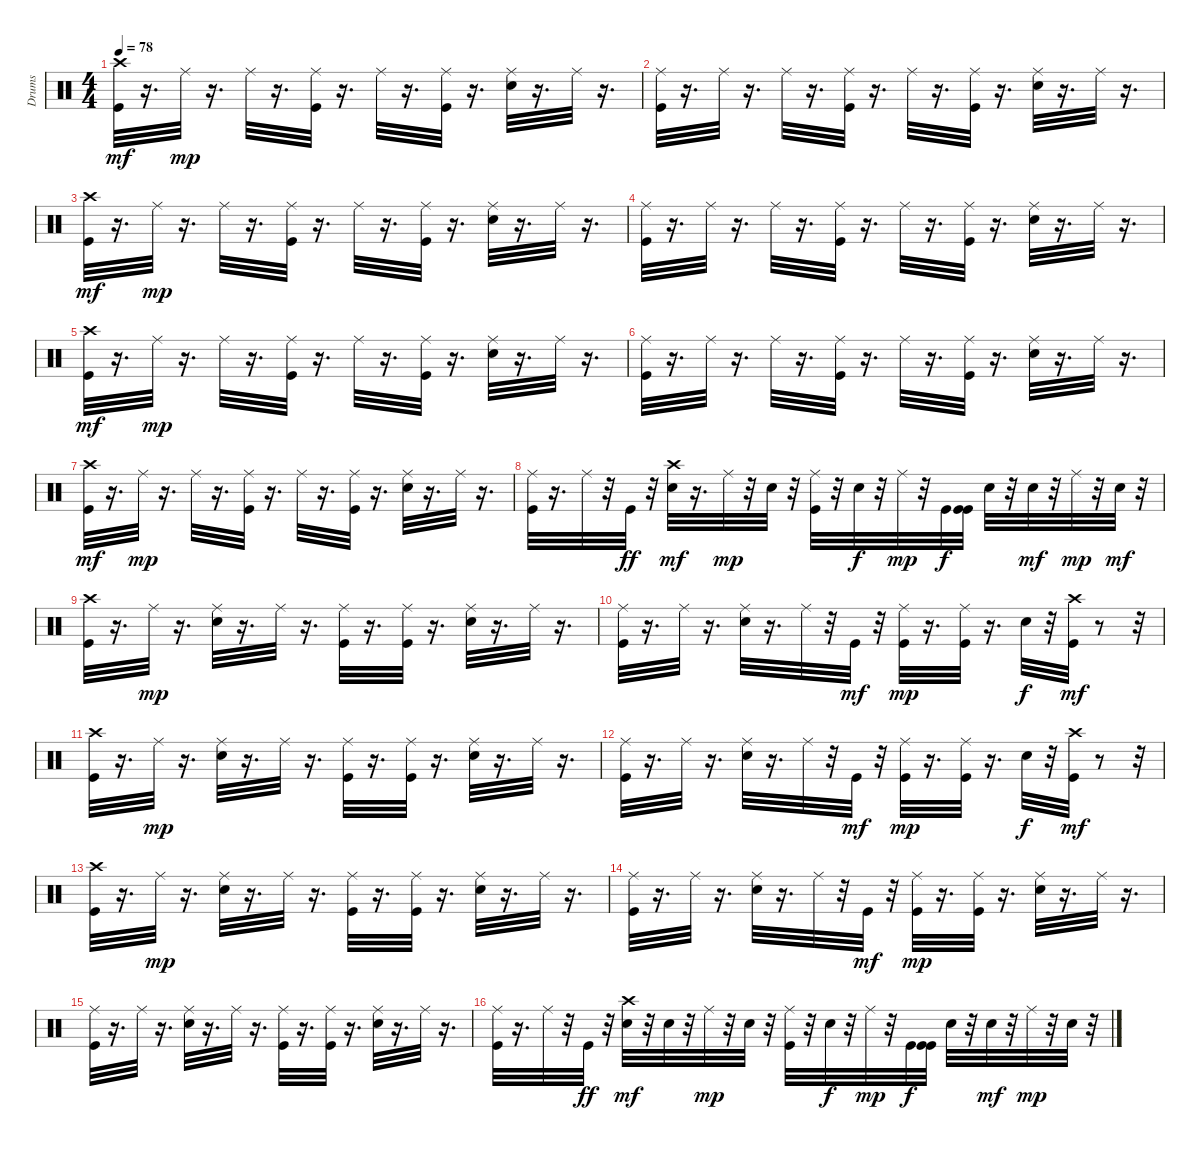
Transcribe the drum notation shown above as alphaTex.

\track ("Drums" "Drums") {instrument percussion}
\staff {score}
\articulation defaults
\ts (4 4)
\tempo 78
\clef neutral
\ks c
("Kick (hit)" "Crash high (hit)").32{dy mf} r.16{d} "Ride (middle)".32{dy mp} r.16{d} "Ride (middle)".32 r.16{d} ("Kick (hit)" "Ride (middle)").32 r.16{d} "Ride (middle)".32 r.16{d} ("Kick (hit)" "Ride (middle)").32 r.16{d} ("Snare (hit) 2" "Ride (middle)").32 r.16{d} "Ride (middle)".32 r.16{d} |
("Kick (hit)" "Ride (middle)").32 r.16{d} "Ride (middle)".32 r.16{d} "Ride (middle)".32 r.16{d} ("Kick (hit)" "Ride (middle)").32 r.16{d} "Ride (middle)".32 r.16{d} ("Kick (hit)" "Ride (middle)").32 r.16{d} ("Snare (hit) 2" "Ride (middle)").32 r.16{d} "Ride (middle)".32 r.16{d} |
("Kick (hit)" "Crash high (hit)").32{dy mf} r.16{d} "Ride (middle)".32{dy mp} r.16{d} "Ride (middle)".32 r.16{d} ("Kick (hit)" "Ride (middle)").32 r.16{d} "Ride (middle)".32 r.16{d} ("Kick (hit)" "Ride (middle)").32 r.16{d} ("Snare (hit) 2" "Ride (middle)").32 r.16{d} "Ride (middle)".32 r.16{d} |
("Kick (hit)" "Ride (middle)").32 r.16{d} "Ride (middle)".32 r.16{d} "Ride (middle)".32 r.16{d} ("Kick (hit)" "Ride (middle)").32 r.16{d} "Ride (middle)".32 r.16{d} ("Kick (hit)" "Ride (middle)").32 r.16{d} ("Snare (hit) 2" "Ride (middle)").32 r.16{d} "Ride (middle)".32 r.16{d} |
("Kick (hit)" "Crash high (hit)").32{dy mf} r.16{d} "Ride (middle)".32{dy mp} r.16{d} "Ride (middle)".32 r.16{d} ("Kick (hit)" "Ride (middle)").32 r.16{d} "Ride (middle)".32 r.16{d} ("Kick (hit)" "Ride (middle)").32 r.16{d} ("Snare (hit) 2" "Ride (middle)").32 r.16{d} "Ride (middle)".32 r.16{d} |
("Kick (hit)" "Ride (middle)").32 r.16{d} "Ride (middle)".32 r.16{d} "Ride (middle)".32 r.16{d} ("Kick (hit)" "Ride (middle)").32 r.16{d} "Ride (middle)".32 r.16{d} ("Kick (hit)" "Ride (middle)").32 r.16{d} ("Snare (hit) 2" "Ride (middle)").32 r.16{d} "Ride (middle)".32 r.16{d} |
("Kick (hit)" "Crash high (hit)").32{dy mf} r.16{d} "Ride (middle)".32{dy mp} r.16{d} "Ride (middle)".32 r.16{d} ("Kick (hit)" "Ride (middle)").32 r.16{d} "Ride (middle)".32 r.16{d} ("Kick (hit)" "Ride (middle)").32 r.16{d} ("Snare (hit) 2" "Ride (middle)").32 r.16{d} "Ride (middle)".32 r.16{d} |
("Kick (hit)" "Ride (middle)").32 r.16{d} "Ride (middle)".32 r.32 "Kick (hit)".32{dy ff} r.32 ("Snare (hit) 2" "Crash high (hit)").32{dy mf} r.16{d} "Ride (middle)".32{dy mp} r.32 "Snare (hit) 2".32 r.32 ("Kick (hit)" "Ride (middle)").32 r.32 "Snare (hit) 2".32{dy f} r.32 "Ride (middle)".32{dy mp} r.32 "Kick (hit)".32{dy f} ("Kick (hit)" "Kick (hit)").32 "Snare (hit) 2".32 r.32 "Snare (hit) 2".32{dy mf} r.32 "Ride (middle)".32{dy mp} r.32 "Snare (hit) 2".32{dy mf} r.32 |
("Kick (hit)" "Crash high (hit)").32 r.16{d} "Ride (middle)".32{dy mp} r.16{d} ("Snare (hit) 2" "Ride (middle)").32 r.16{d} "Ride (middle)".32 r.16{d} ("Kick (hit)" "Ride (middle)").32 r.16{d} ("Kick (hit)" "Ride (middle)").32 r.16{d} ("Snare (hit) 2" "Ride (middle)").32 r.16{d} "Ride (middle)".32 r.16{d} |
("Kick (hit)" "Ride (middle)").32 r.16{d} "Ride (middle)".32 r.16{d} ("Snare (hit) 2" "Ride (middle)").32 r.16{d} "Ride (middle)".32 r.32 "Kick (hit)".32{dy mf} r.32 ("Kick (hit)" "Ride (middle)").32{dy mp} r.16{d} ("Kick (hit)" "Ride (middle)").32 r.16{d} "Snare (hit) 2".32{dy f} r.32 ("Kick (hit)" "Crash high (hit)").32{dy mf} r.8 r.32 |
("Kick (hit)" "Crash high (hit)").32 r.16{d} "Ride (middle)".32{dy mp} r.16{d} ("Snare (hit) 2" "Ride (middle)").32 r.16{d} "Ride (middle)".32 r.16{d} ("Kick (hit)" "Ride (middle)").32 r.16{d} ("Kick (hit)" "Ride (middle)").32 r.16{d} ("Snare (hit) 2" "Ride (middle)").32 r.16{d} "Ride (middle)".32 r.16{d} |
("Kick (hit)" "Ride (middle)").32 r.16{d} "Ride (middle)".32 r.16{d} ("Snare (hit) 2" "Ride (middle)").32 r.16{d} "Ride (middle)".32 r.32 "Kick (hit)".32{dy mf} r.32 ("Kick (hit)" "Ride (middle)").32{dy mp} r.16{d} ("Kick (hit)" "Ride (middle)").32 r.16{d} "Snare (hit) 2".32{dy f} r.32 ("Kick (hit)" "Crash high (hit)").32{dy mf} r.8 r.32 |
("Kick (hit)" "Crash high (hit)").32 r.16{d} "Ride (middle)".32{dy mp} r.16{d} ("Snare (hit) 2" "Ride (middle)").32 r.16{d} "Ride (middle)".32 r.16{d} ("Kick (hit)" "Ride (middle)").32 r.16{d} ("Kick (hit)" "Ride (middle)").32 r.16{d} ("Snare (hit) 2" "Ride (middle)").32 r.16{d} "Ride (middle)".32 r.16{d} |
("Kick (hit)" "Ride (middle)").32 r.16{d} "Ride (middle)".32 r.16{d} ("Snare (hit) 2" "Ride (middle)").32 r.16{d} "Ride (middle)".32 r.32 "Kick (hit)".32{dy mf} r.32 ("Kick (hit)" "Ride (middle)").32{dy mp} r.16{d} ("Kick (hit)" "Ride (middle)").32 r.16{d} ("Snare (hit) 2" "Ride (middle)").32 r.16{d} "Ride (middle)".32 r.16{d} |
("Kick (hit)" "Ride (middle)").32 r.16{d} "Ride (middle)".32 r.16{d} ("Snare (hit) 2" "Ride (middle)").32 r.16{d} "Ride (middle)".32 r.16{d} ("Kick (hit)" "Ride (middle)").32 r.16{d} ("Kick (hit)" "Ride (middle)").32 r.16{d} ("Snare (hit) 2" "Ride (middle)").32 r.16{d} "Ride (middle)".32 r.16{d} |
("Kick (hit)" "Ride (middle)").32 r.16{d} "Ride (middle)".32 r.32 "Kick (hit)".32{dy ff} r.32 ("Snare (hit) 2" "Crash high (hit)").32{dy mf} r.32 "Snare (hit) 2".32 r.32 "Ride (middle)".32{dy mp} r.32 "Snare (hit) 2".32 r.32 ("Kick (hit)" "Ride (middle)").32 r.32 "Snare (hit) 2".32{dy f} r.32 "Ride (middle)".32{dy mp} r.32 "Kick (hit)".32{dy f} ("Kick (hit)" "Kick (hit)").32 "Snare (hit) 2".32 r.32 "Snare (hit) 2".32{dy mf} r.32 "Ride (middle)".32{dy mp} r.32 "Snare (hit) 2".32 r.32
